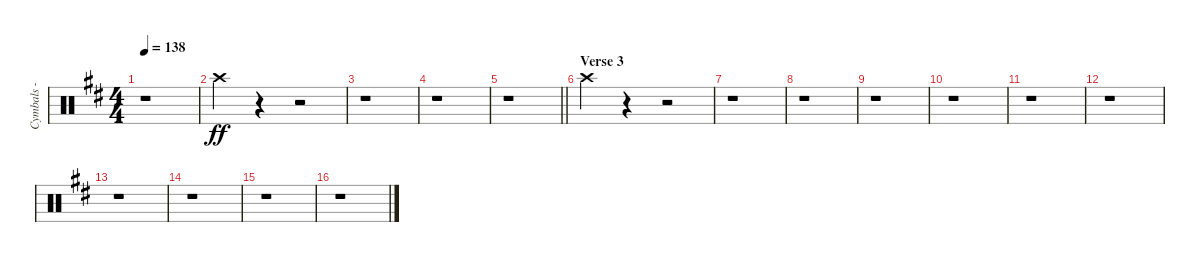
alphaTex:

\track ("Cymbals - crash" "Cymbals - ") {instrument percussion}
\staff {score}
\articulation defaults
\ts (4 4)
\tempo 138
\clef neutral
\ks d
r.1{dy ff} |
"Crash high (hit)".4 r.4 r.2 |
r.1 |
r.1 |
\barLineRight lightlight
r.1 |
\section ("" "Verse 3")
"Crash high (hit)".4 r.4 r.2 |
r.1 |
r.1 |
r.1 |
r.1 |
r.1 |
r.1 |
r.1 |
r.1 |
r.1 |
r.1
